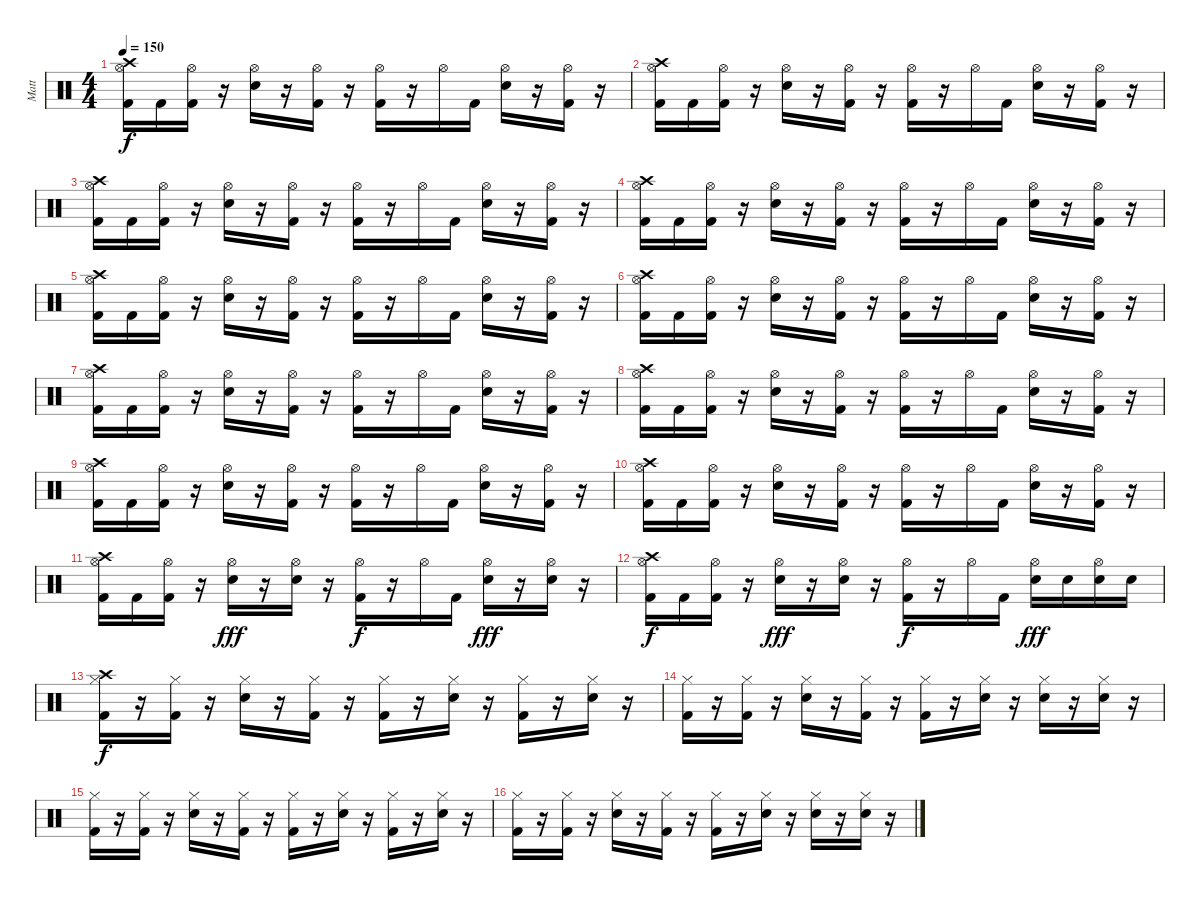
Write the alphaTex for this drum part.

\track ("Matt" "Matt") {instrument percussion}
\staff {score}
\articulation defaults
\ts (4 4)
\tempo 150
\clef neutral
\ks c
("Crash high (hit)" "Hi-Hat (open)" "Kick (hit) 2").16{dy f} "Kick (hit) 2".16 ("Hi-Hat (open)" "Kick (hit) 2").16 r.16 ("Hi-Hat (open)" "Snare (hit) 2").16 r.16 ("Hi-Hat (open)" "Kick (hit) 2").16 r.16 ("Hi-Hat (open)" "Kick (hit) 2").16 r.16 "Hi-Hat (open)".16 "Kick (hit) 2".16 ("Hi-Hat (open)" "Snare (hit) 2").16 r.16 ("Hi-Hat (open)" "Kick (hit) 2").16 r.16 |
("Crash high (hit)" "Hi-Hat (open)" "Kick (hit) 2").16 "Kick (hit) 2".16 ("Hi-Hat (open)" "Kick (hit) 2").16 r.16 ("Hi-Hat (open)" "Snare (hit) 2").16 r.16 ("Hi-Hat (open)" "Kick (hit) 2").16 r.16 ("Hi-Hat (open)" "Kick (hit) 2").16 r.16 "Hi-Hat (open)".16 "Kick (hit) 2".16 ("Hi-Hat (open)" "Snare (hit) 2").16 r.16 ("Hi-Hat (open)" "Kick (hit) 2").16 r.16 |
("Crash high (hit)" "Hi-Hat (open)" "Kick (hit) 2").16 "Kick (hit) 2".16 ("Hi-Hat (open)" "Kick (hit) 2").16 r.16 ("Hi-Hat (open)" "Snare (hit) 2").16 r.16 ("Hi-Hat (open)" "Kick (hit) 2").16 r.16 ("Hi-Hat (open)" "Kick (hit) 2").16 r.16 "Hi-Hat (open)".16 "Kick (hit) 2".16 ("Hi-Hat (open)" "Snare (hit) 2").16 r.16 ("Hi-Hat (open)" "Kick (hit) 2").16 r.16 |
("Crash high (hit)" "Hi-Hat (open)" "Kick (hit) 2").16 "Kick (hit) 2".16 ("Hi-Hat (open)" "Kick (hit) 2").16 r.16 ("Hi-Hat (open)" "Snare (hit) 2").16 r.16 ("Hi-Hat (open)" "Kick (hit) 2").16 r.16 ("Hi-Hat (open)" "Kick (hit) 2").16 r.16 "Hi-Hat (open)".16 "Kick (hit) 2".16 ("Hi-Hat (open)" "Snare (hit) 2").16 r.16 ("Hi-Hat (open)" "Kick (hit) 2").16 r.16 |
("Crash high (hit)" "Hi-Hat (open)" "Kick (hit) 2").16 "Kick (hit) 2".16 ("Hi-Hat (open)" "Kick (hit) 2").16 r.16 ("Hi-Hat (open)" "Snare (hit) 2").16 r.16 ("Hi-Hat (open)" "Kick (hit) 2").16 r.16 ("Hi-Hat (open)" "Kick (hit) 2").16 r.16 "Hi-Hat (open)".16 "Kick (hit) 2".16 ("Hi-Hat (open)" "Snare (hit) 2").16 r.16 ("Hi-Hat (open)" "Kick (hit) 2").16 r.16 |
("Crash high (hit)" "Hi-Hat (open)" "Kick (hit) 2").16 "Kick (hit) 2".16 ("Hi-Hat (open)" "Kick (hit) 2").16 r.16 ("Hi-Hat (open)" "Snare (hit) 2").16 r.16 ("Hi-Hat (open)" "Kick (hit) 2").16 r.16 ("Hi-Hat (open)" "Kick (hit) 2").16 r.16 "Hi-Hat (open)".16 "Kick (hit) 2".16 ("Hi-Hat (open)" "Snare (hit) 2").16 r.16 ("Hi-Hat (open)" "Kick (hit) 2").16 r.16 |
("Crash high (hit)" "Hi-Hat (open)" "Kick (hit) 2").16 "Kick (hit) 2".16 ("Hi-Hat (open)" "Kick (hit) 2").16 r.16 ("Hi-Hat (open)" "Snare (hit) 2").16 r.16 ("Hi-Hat (open)" "Kick (hit) 2").16 r.16 ("Hi-Hat (open)" "Kick (hit) 2").16 r.16 "Hi-Hat (open)".16 "Kick (hit) 2".16 ("Hi-Hat (open)" "Snare (hit) 2").16 r.16 ("Hi-Hat (open)" "Kick (hit) 2").16 r.16 |
("Crash high (hit)" "Hi-Hat (open)" "Kick (hit) 2").16 "Kick (hit) 2".16 ("Hi-Hat (open)" "Kick (hit) 2").16 r.16 ("Hi-Hat (open)" "Snare (hit) 2").16 r.16 ("Hi-Hat (open)" "Kick (hit) 2").16 r.16 ("Hi-Hat (open)" "Kick (hit) 2").16 r.16 "Hi-Hat (open)".16 "Kick (hit) 2".16 ("Hi-Hat (open)" "Snare (hit) 2").16 r.16 ("Hi-Hat (open)" "Kick (hit) 2").16 r.16 |
("Crash high (hit)" "Hi-Hat (open)" "Kick (hit) 2").16 "Kick (hit) 2".16 ("Hi-Hat (open)" "Kick (hit) 2").16 r.16 ("Hi-Hat (open)" "Snare (hit) 2").16 r.16 ("Hi-Hat (open)" "Kick (hit) 2").16 r.16 ("Hi-Hat (open)" "Kick (hit) 2").16 r.16 "Hi-Hat (open)".16 "Kick (hit) 2".16 ("Hi-Hat (open)" "Snare (hit) 2").16 r.16 ("Hi-Hat (open)" "Kick (hit) 2").16 r.16 |
("Crash high (hit)" "Hi-Hat (open)" "Kick (hit) 2").16 "Kick (hit) 2".16 ("Hi-Hat (open)" "Kick (hit) 2").16 r.16 ("Hi-Hat (open)" "Snare (hit) 2").16 r.16 ("Hi-Hat (open)" "Kick (hit) 2").16 r.16 ("Hi-Hat (open)" "Kick (hit) 2").16 r.16 "Hi-Hat (open)".16 "Kick (hit) 2".16 ("Hi-Hat (open)" "Snare (hit) 2").16 r.16 ("Hi-Hat (open)" "Kick (hit) 2").16 r.16 |
("Crash high (hit)" "Hi-Hat (open)" "Kick (hit) 2").16 "Kick (hit) 2".16 ("Hi-Hat (open)" "Kick (hit) 2").16 r.16 ("Hi-Hat (open)" "Snare (hit) 2").16{dy fff} r.16 ("Hi-Hat (open)" "Snare (hit) 2").16 r.16 ("Hi-Hat (open)" "Kick (hit) 2").16{dy f} r.16 "Hi-Hat (open)".16 "Kick (hit) 2".16 ("Hi-Hat (open)" "Snare (hit) 2").16{dy fff} r.16 ("Hi-Hat (open)" "Snare (hit) 2").16 r.16 |
("Crash high (hit)" "Hi-Hat (open)" "Kick (hit) 2").16{dy f} "Kick (hit) 2".16 ("Hi-Hat (open)" "Kick (hit) 2").16 r.16 ("Hi-Hat (open)" "Snare (hit) 2").16{dy fff} r.16 ("Hi-Hat (open)" "Snare (hit) 2").16 r.16 ("Hi-Hat (open)" "Kick (hit) 2").16{dy f} r.16 "Hi-Hat (open)".16 "Kick (hit) 2".16 ("Hi-Hat (open)" "Snare (hit) 2").16{dy fff} "Snare (hit) 2".16 ("Hi-Hat (open)" "Snare (hit) 2").16 "Snare (hit) 2".16 |
("Hi-Hat (closed)" "Crash high (hit)" "Kick (hit) 2").16{dy f} r.16 ("Hi-Hat (closed)" "Kick (hit) 2").16 r.16 ("Hi-Hat (closed)" "Snare (hit) 2").16 r.16 ("Hi-Hat (closed)" "Kick (hit) 2").16 r.16 ("Hi-Hat (closed)" "Kick (hit) 2").16 r.16 ("Hi-Hat (closed)" "Snare (hit) 2").16 r.16 ("Hi-Hat (closed)" "Kick (hit) 2").16 r.16 ("Hi-Hat (closed)" "Snare (hit) 2").16 r.16 |
("Hi-Hat (closed)" "Kick (hit) 2").16 r.16 ("Hi-Hat (closed)" "Kick (hit) 2").16 r.16 ("Hi-Hat (closed)" "Snare (hit) 2").16 r.16 ("Hi-Hat (closed)" "Kick (hit) 2").16 r.16 ("Hi-Hat (closed)" "Kick (hit) 2").16 r.16 ("Hi-Hat (closed)" "Snare (hit) 2").16 r.16 ("Hi-Hat (closed)" "Snare (hit) 2").16 r.16 ("Hi-Hat (closed)" "Snare (hit) 2").16 r.16 |
("Hi-Hat (closed)" "Kick (hit) 2").16 r.16 ("Hi-Hat (closed)" "Kick (hit) 2").16 r.16 ("Hi-Hat (closed)" "Snare (hit) 2").16 r.16 ("Hi-Hat (closed)" "Kick (hit) 2").16 r.16 ("Hi-Hat (closed)" "Kick (hit) 2").16 r.16 ("Hi-Hat (closed)" "Snare (hit) 2").16 r.16 ("Hi-Hat (closed)" "Kick (hit) 2").16 r.16 ("Hi-Hat (closed)" "Snare (hit) 2").16 r.16 |
("Hi-Hat (closed)" "Kick (hit) 2").16 r.16 ("Hi-Hat (closed)" "Kick (hit) 2").16 r.16 ("Hi-Hat (closed)" "Snare (hit) 2").16 r.16 ("Hi-Hat (closed)" "Kick (hit) 2").16 r.16 ("Hi-Hat (closed)" "Kick (hit) 2").16 r.16 ("Hi-Hat (closed)" "Snare (hit) 2").16 r.16 ("Hi-Hat (closed)" "Snare (hit) 2").16 r.16 ("Hi-Hat (closed)" "Snare (hit) 2").16 r.16
